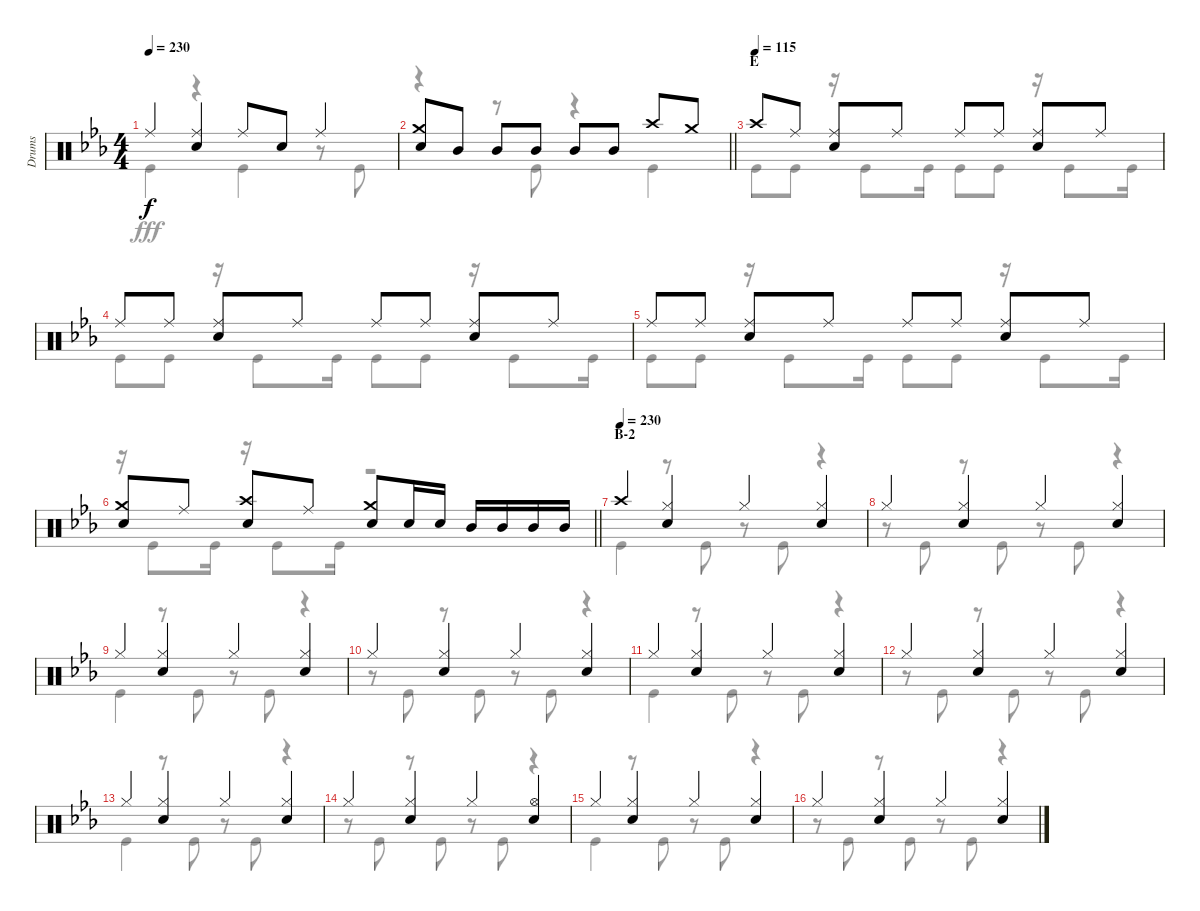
\track ("Drums" "Drums") {instrument percussion}
\staff {score}
\articulation defaults
\voice
\ts (4 4)
\tempo 230
\clef neutral
\ks eb "Ride (middle)".4{dy f}
("Ride (middle)" "Snare (hit) 2").4 "Ride (middle)".8 "Snare (hit) 2".8 "Ride (middle)".4 |
\barLineRight lightlight
("Crash medium (hit)" "Snare (hit) 2").8 "Mid Tom (hit)".8 "Mid Tom (hit)".8 "Mid Tom (hit)".8 "Mid Tom (hit)".8 "Mid Tom (hit)".8 "Crash high (hit)".8 "Crash medium (hit)".8 |
\section ("" "E")
\tempo (115)
"Crash high (hit)".8 "Ride (middle)".8 ("Ride (middle)" "Snare (hit) 2").8 "Ride (middle)".8 "Ride (middle)".8 "Ride (middle)".8 ("Ride (middle)" "Snare (hit) 2").8 "Ride (middle)".8 |
"Ride (middle)".8 "Ride (middle)".8 ("Ride (middle)" "Snare (hit) 2").8 "Ride (middle)".8 "Ride (middle)".8 "Ride (middle)".8 ("Ride (middle)" "Snare (hit) 2").8 "Ride (middle)".8 |
"Ride (middle)".8 "Ride (middle)".8 ("Ride (middle)" "Snare (hit) 2").8 "Ride (middle)".8 "Ride (middle)".8 "Ride (middle)".8 ("Ride (middle)" "Snare (hit) 2").8 "Ride (middle)".8 |
\barLineRight lightlight
("Crash medium (hit)" "Snare (hit) 2").8 "Ride (middle)".8 ("Crash high (hit)" "Snare (hit) 2").8 "Ride (middle)".8 ("Crash medium (hit)" "Snare (hit) 2").8 "Snare (hit) 2".16 "Snare (hit) 2".16 "Mid Tom (hit)".16 "Mid Tom (hit)".16 "Mid Tom (hit)".16 "Mid Tom (hit)".16 |
\section ("" "B-2")
\tempo (230)
"Crash high (hit)".4 ("Hi-Hat (closed)" "Snare (hit) 2").4 "Hi-Hat (closed)".4 ("Hi-Hat (closed)" "Snare (hit) 2").4 |
"Hi-Hat (closed)".4 ("Hi-Hat (closed)" "Snare (hit) 2").4 "Hi-Hat (closed)".4 ("Hi-Hat (closed)" "Snare (hit) 2").4 |
"Hi-Hat (closed)".4 ("Hi-Hat (closed)" "Snare (hit) 2").4 "Hi-Hat (closed)".4 ("Hi-Hat (closed)" "Snare (hit) 2").4 |
"Hi-Hat (closed)".4 ("Hi-Hat (closed)" "Snare (hit) 2").4 "Hi-Hat (closed)".4 ("Hi-Hat (closed)" "Snare (hit) 2").4 |
"Hi-Hat (closed)".4 ("Hi-Hat (closed)" "Snare (hit) 2").4 "Hi-Hat (closed)".4 ("Hi-Hat (closed)" "Snare (hit) 2").4 |
"Hi-Hat (closed)".4 ("Hi-Hat (closed)" "Snare (hit) 2").4 "Hi-Hat (closed)".4 ("Hi-Hat (closed)" "Snare (hit) 2").4 |
"Hi-Hat (closed)".4 ("Hi-Hat (closed)" "Snare (hit) 2").4 "Hi-Hat (closed)".4 ("Hi-Hat (closed)" "Snare (hit) 2").4 |
"Hi-Hat (closed)".4 ("Hi-Hat (closed)" "Snare (hit) 2").4 "Hi-Hat (closed)".4 ("Hi-Hat (open)" "Snare (hit) 2").4 |
"Hi-Hat (closed)".4 ("Hi-Hat (closed)" "Snare (hit) 2").4 "Hi-Hat (closed)".4 ("Hi-Hat (closed)" "Snare (hit) 2").4 |
"Hi-Hat (closed)".4 ("Hi-Hat (closed)" "Snare (hit) 2").4 "Hi-Hat (closed)".4 ("Hi-Hat (closed)" "Snare (hit) 2").4
\voice
\clef neutral
\ottava regular
\simile none
\ks eb "Kick (hit)".4{dy fff}
r.4 "Kick (hit)".4 r.8 "Kick (hit)".8 |
\barLineRight lightlight
r.4 r.8 "Kick (hit)".8 r.4 "Kick (hit)".4 |
"Kick (hit)".8 "Kick (hit)".8 r.16 "Kick (hit)".8 "Kick (hit)".16 "Kick (hit)".8 "Kick (hit)".8 r.16 "Kick (hit)".8 "Kick (hit)".16 |
"Kick (hit)".8 "Kick (hit)".8 r.16 "Kick (hit)".8 "Kick (hit)".16 "Kick (hit)".8 "Kick (hit)".8 r.16 "Kick (hit)".8 "Kick (hit)".16 |
"Kick (hit)".8 "Kick (hit)".8 r.16 "Kick (hit)".8 "Kick (hit)".16 "Kick (hit)".8 "Kick (hit)".8 r.16 "Kick (hit)".8 "Kick (hit)".16 |
\barLineRight lightlight
r.16 "Kick (hit)".8 "Kick (hit)".16 r.16 "Kick (hit)".8 "Kick (hit)".16 r.2 |
"Kick (hit)".4 r.8 "Kick (hit)".8 r.8 "Kick (hit)".8 r.4 |
r.8 "Kick (hit)".8 r.8 "Kick (hit)".8 r.8 "Kick (hit)".8 r.4 |
"Kick (hit)".4 r.8 "Kick (hit)".8 r.8 "Kick (hit)".8 r.4 |
r.8 "Kick (hit)".8 r.8 "Kick (hit)".8 r.8 "Kick (hit)".8 r.4 |
"Kick (hit)".4 r.8 "Kick (hit)".8 r.8 "Kick (hit)".8 r.4 |
r.8 "Kick (hit)".8 r.8 "Kick (hit)".8 r.8 "Kick (hit)".8 r.4 |
"Kick (hit)".4 r.8 "Kick (hit)".8 r.8 "Kick (hit)".8 r.4 |
r.8 "Kick (hit)".8 r.8 "Kick (hit)".8 r.8 "Kick (hit)".8 r.4 |
"Kick (hit)".4 r.8 "Kick (hit)".8 r.8 "Kick (hit)".8 r.4 |
r.8 "Kick (hit)".8 r.8 "Kick (hit)".8 r.8 "Kick (hit)".8 r.4
